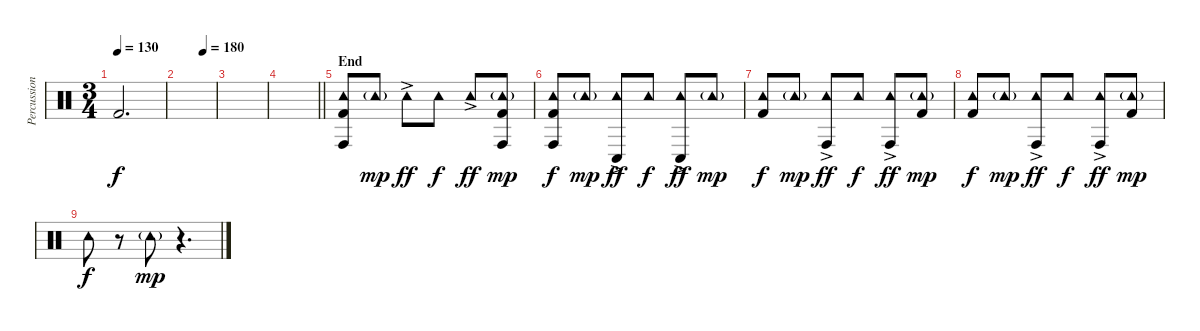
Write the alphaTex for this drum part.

\track ("Percussion" "Percussion") {instrument percussion}
\staff {score}
\articulation defaults
\ts (3 4)
\tempo 130
\clef neutral
\ks c "Kick (hit) 2".2{d dy f}
|
\tempo (180 0.6666666666666666)
|
|
\barLineRight lightlight
|
\section ("" "End")
("Tambourine (hit)" "Conga high (hit)" "Kick (hit) 2").8{volume 8} "Tambourine (hit)"{g}.8{dy mp} "Tambourine (hit)"{ac}.8{dy ff volume 10} "Tambourine (hit)".8{dy f volume 6} "Tambourine (hit)"{ac}.8{dy ff volume 10} ("Tambourine (hit)"{g} "Conga high (hit)" "Kick (hit) 2").8{dy mp} |
("Tambourine (hit)" "Conga high (hit)" "Kick (hit) 2").8{dy f} "Tambourine (hit)"{g}.8{dy mp} ("Tambourine (hit)"{ac} "Conga low (hit)").8{dy ff volume 10} "Tambourine (hit)".8{dy f volume 6} ("Tambourine (hit)"{ac} "Conga low (hit)").8{dy ff volume 10} "Tambourine (hit)"{g}.8{dy mp} |
("Tambourine (hit)" "Kick (hit) 2").8{dy f} "Tambourine (hit)"{g}.8{dy mp} ("Tambourine (hit)"{ac} "Conga high (hit)").8{dy ff volume 10} "Tambourine (hit)".8{dy f volume 6} ("Tambourine (hit)"{ac} "Conga high (hit)").8{dy ff volume 10} ("Tambourine (hit)"{g} "Kick (hit) 2").8{dy mp} |
("Tambourine (hit)" "Kick (hit) 2").8{dy f} "Tambourine (hit)"{g}.8{dy mp} ("Tambourine (hit)"{ac} "Conga high (hit)").8{dy ff volume 10} "Tambourine (hit)".8{dy f volume 6} ("Tambourine (hit)"{ac} "Conga high (hit)").8{dy ff volume 10} ("Tambourine (hit)"{g} "Kick (hit) 2").8{dy mp} |
"Tambourine (hit)".8{dy f} r.8 "Tambourine (hit)"{g}.8{dy mp volume 10} r.4{d volume 10}
